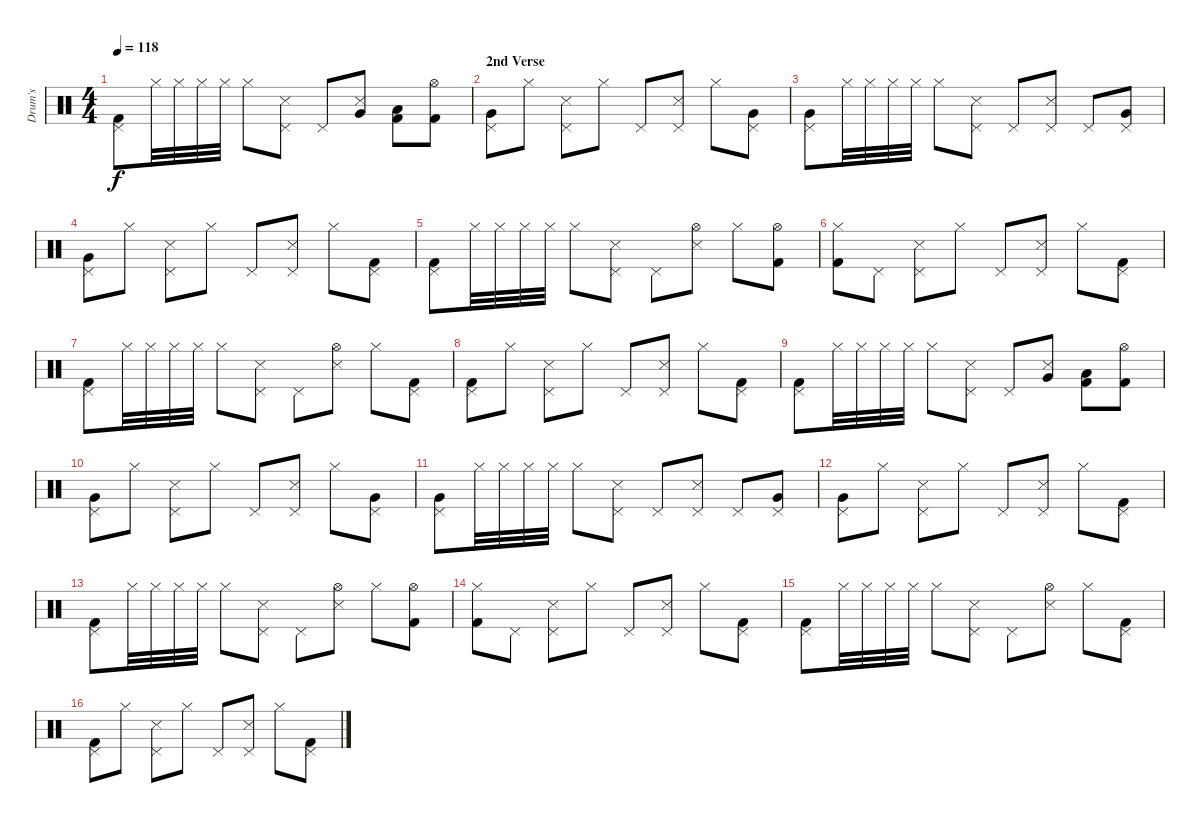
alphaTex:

\track ("Drum's" "Drum's") {instrument percussion}
\staff {score}
\articulation defaults
\ts (4 4)
\tempo 118
\clef neutral
\ks c
("Pedal Hi-Hat (hit)" "Kick (hit) 2").8{dy f} "Hi-Hat (closed)".32 "Hi-Hat (closed)".32 "Hi-Hat (closed)".32 "Hi-Hat (closed)".32 "Hi-Hat (closed)".8 ("Pedal Hi-Hat (hit)" "Snare (side stick) 3").8 "Pedal Hi-Hat (hit)".8 ("Snare (side stick) 3" "Very Low Tom (hit)").8 ("Kick (hit) 2" "Low Tom (hit)").8 ("Hi-Hat (open)" "Kick (hit) 2").8 |
\section ("" "2nd Verse")
("Pedal Hi-Hat (hit)" "Very Low Tom (hit)").8 "Hi-Hat (closed)".8 ("Pedal Hi-Hat (hit)" "Snare (side stick) 3").8 "Hi-Hat (closed)".8 "Pedal Hi-Hat (hit)".8 ("Pedal Hi-Hat (hit)" "Snare (side stick) 3").8 "Hi-Hat (closed)".8 ("Pedal Hi-Hat (hit)" "Very Low Tom (hit)").8 |
("Pedal Hi-Hat (hit)" "Very Low Tom (hit)").8 "Hi-Hat (closed)".32 "Hi-Hat (closed)".32 "Hi-Hat (closed)".32 "Hi-Hat (closed)".32 "Hi-Hat (closed)".8 ("Pedal Hi-Hat (hit)" "Snare (side stick) 3").8 "Pedal Hi-Hat (hit)".8 ("Pedal Hi-Hat (hit)" "Snare (side stick) 3").8 "Pedal Hi-Hat (hit)".8 ("Pedal Hi-Hat (hit)" "Very Low Tom (hit)").8 |
("Pedal Hi-Hat (hit)" "Very Low Tom (hit)").8 "Hi-Hat (closed)".8 ("Pedal Hi-Hat (hit)" "Snare (side stick) 3").8 "Hi-Hat (closed)".8 "Pedal Hi-Hat (hit)".8 ("Pedal Hi-Hat (hit)" "Snare (side stick) 3").8 "Hi-Hat (closed)".8 ("Pedal Hi-Hat (hit)" "Kick (hit) 2").8 |
("Pedal Hi-Hat (hit)" "Kick (hit) 2").8 "Hi-Hat (closed)".32 "Hi-Hat (closed)".32 "Hi-Hat (closed)".32 "Hi-Hat (closed)".32 "Hi-Hat (closed)".8 ("Pedal Hi-Hat (hit)" "Snare (side stick) 3").8 "Pedal Hi-Hat (hit)".8 ("Hi-Hat (open)" "Snare (side stick) 3").8 "Hi-Hat (closed)".8 ("Hi-Hat (open)" "Kick (hit) 2").8 |
("Hi-Hat (closed)" "Kick (hit) 2").8 "Pedal Hi-Hat (hit)".8 ("Pedal Hi-Hat (hit)" "Snare (side stick) 3").8 "Hi-Hat (closed)".8 "Pedal Hi-Hat (hit)".8 ("Pedal Hi-Hat (hit)" "Snare (side stick) 3").8 "Hi-Hat (closed)".8 ("Pedal Hi-Hat (hit)" "Kick (hit) 2").8 |
("Pedal Hi-Hat (hit)" "Kick (hit) 2").8 "Hi-Hat (closed)".32 "Hi-Hat (closed)".32 "Hi-Hat (closed)".32 "Hi-Hat (closed)".32 "Hi-Hat (closed)".8 ("Pedal Hi-Hat (hit)" "Snare (side stick) 3").8 "Pedal Hi-Hat (hit)".8 ("Hi-Hat (open)" "Snare (side stick) 3").8 "Hi-Hat (closed)".8 ("Pedal Hi-Hat (hit)" "Kick (hit) 2").8 |
("Pedal Hi-Hat (hit)" "Kick (hit) 2").8 "Hi-Hat (closed)".8 ("Pedal Hi-Hat (hit)" "Snare (side stick) 3").8 "Hi-Hat (closed)".8 "Pedal Hi-Hat (hit)".8 ("Pedal Hi-Hat (hit)" "Snare (side stick) 3").8 "Hi-Hat (closed)".8 ("Pedal Hi-Hat (hit)" "Kick (hit) 2").8 |
("Pedal Hi-Hat (hit)" "Kick (hit) 2").8 "Hi-Hat (closed)".32 "Hi-Hat (closed)".32 "Hi-Hat (closed)".32 "Hi-Hat (closed)".32 "Hi-Hat (closed)".8 ("Pedal Hi-Hat (hit)" "Snare (side stick) 3").8 "Pedal Hi-Hat (hit)".8 ("Snare (side stick) 3" "Very Low Tom (hit)").8 ("Kick (hit) 2" "Low Tom (hit)").8 ("Hi-Hat (open)" "Kick (hit) 2").8 |
("Pedal Hi-Hat (hit)" "Very Low Tom (hit)").8 "Hi-Hat (closed)".8 ("Pedal Hi-Hat (hit)" "Snare (side stick) 3").8 "Hi-Hat (closed)".8 "Pedal Hi-Hat (hit)".8 ("Pedal Hi-Hat (hit)" "Snare (side stick) 3").8 "Hi-Hat (closed)".8 ("Pedal Hi-Hat (hit)" "Very Low Tom (hit)").8 |
("Pedal Hi-Hat (hit)" "Very Low Tom (hit)").8 "Hi-Hat (closed)".32 "Hi-Hat (closed)".32 "Hi-Hat (closed)".32 "Hi-Hat (closed)".32 "Hi-Hat (closed)".8 ("Pedal Hi-Hat (hit)" "Snare (side stick) 3").8 "Pedal Hi-Hat (hit)".8 ("Pedal Hi-Hat (hit)" "Snare (side stick) 3").8 "Pedal Hi-Hat (hit)".8 ("Pedal Hi-Hat (hit)" "Very Low Tom (hit)").8 |
("Pedal Hi-Hat (hit)" "Very Low Tom (hit)").8 "Hi-Hat (closed)".8 ("Pedal Hi-Hat (hit)" "Snare (side stick) 3").8 "Hi-Hat (closed)".8 "Pedal Hi-Hat (hit)".8 ("Pedal Hi-Hat (hit)" "Snare (side stick) 3").8 "Hi-Hat (closed)".8 ("Pedal Hi-Hat (hit)" "Kick (hit) 2").8 |
("Pedal Hi-Hat (hit)" "Kick (hit) 2").8 "Hi-Hat (closed)".32 "Hi-Hat (closed)".32 "Hi-Hat (closed)".32 "Hi-Hat (closed)".32 "Hi-Hat (closed)".8 ("Pedal Hi-Hat (hit)" "Snare (side stick) 3").8 "Pedal Hi-Hat (hit)".8 ("Hi-Hat (open)" "Snare (side stick) 3").8 "Hi-Hat (closed)".8 ("Hi-Hat (open)" "Kick (hit) 2").8 |
("Hi-Hat (closed)" "Kick (hit) 2").8 "Pedal Hi-Hat (hit)".8 ("Pedal Hi-Hat (hit)" "Snare (side stick) 3").8 "Hi-Hat (closed)".8 "Pedal Hi-Hat (hit)".8 ("Pedal Hi-Hat (hit)" "Snare (side stick) 3").8 "Hi-Hat (closed)".8 ("Pedal Hi-Hat (hit)" "Kick (hit) 2").8 |
("Pedal Hi-Hat (hit)" "Kick (hit) 2").8 "Hi-Hat (closed)".32 "Hi-Hat (closed)".32 "Hi-Hat (closed)".32 "Hi-Hat (closed)".32 "Hi-Hat (closed)".8 ("Pedal Hi-Hat (hit)" "Snare (side stick) 3").8 "Pedal Hi-Hat (hit)".8 ("Hi-Hat (open)" "Snare (side stick) 3").8 "Hi-Hat (closed)".8 ("Pedal Hi-Hat (hit)" "Kick (hit) 2").8 |
("Pedal Hi-Hat (hit)" "Kick (hit) 2").8 "Hi-Hat (closed)".8 ("Pedal Hi-Hat (hit)" "Snare (side stick) 3").8 "Hi-Hat (closed)".8 "Pedal Hi-Hat (hit)".8 ("Pedal Hi-Hat (hit)" "Snare (side stick) 3").8 "Hi-Hat (closed)".8 ("Pedal Hi-Hat (hit)" "Kick (hit) 2").8
